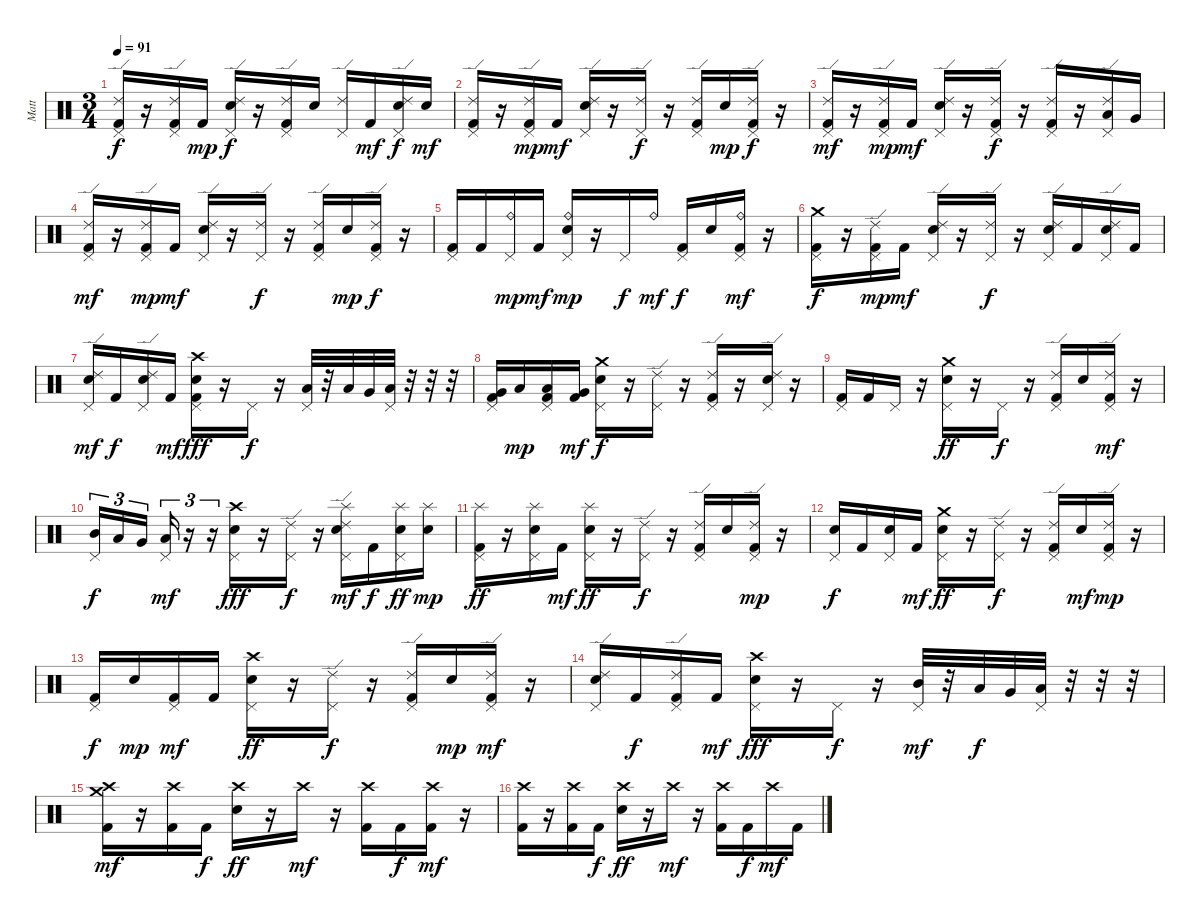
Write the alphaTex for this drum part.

\track ("Matt" "Matt") {instrument percussion}
\staff {score}
\articulation defaults
\ts (3 4)
\tempo 91
\clef neutral
\ks c
("Pedal Hi-Hat (hit)" "Ride (edge) 2" "Kick (hit) 2").16{dy f} r.16 ("Pedal Hi-Hat (hit)" "Ride (edge) 2" "Kick (hit) 2").16 "Kick (hit) 2".16{dy mp} ("Pedal Hi-Hat (hit)" "Ride (edge) 2" "Electric Snare (hit)").16{dy f} r.16 ("Pedal Hi-Hat (hit)" "Ride (edge) 2" "Kick (hit) 2").16 "Electric Snare (hit)".16 ("Pedal Hi-Hat (hit)" "Ride (edge) 2").16 "Kick (hit) 2".16{dy mf} ("Pedal Hi-Hat (hit)" "Ride (edge) 2" "Electric Snare (hit)").16{dy f} "Electric Snare (hit)".16{dy mf} |
("Pedal Hi-Hat (hit)" "Ride (edge) 2" "Kick (hit) 2").16 r.16 ("Pedal Hi-Hat (hit)" "Ride (edge) 2" "Kick (hit) 2").16{dy mp} "Kick (hit) 2".16{dy mf} ("Pedal Hi-Hat (hit)" "Ride (edge) 2" "Electric Snare (hit)").16 r.16 ("Pedal Hi-Hat (hit)" "Ride (edge) 2").16{dy f} r.16 ("Pedal Hi-Hat (hit)" "Ride (edge) 2" "Kick (hit) 2").16 "Electric Snare (hit)".16{dy mp} ("Pedal Hi-Hat (hit)" "Ride (edge) 2" "Kick (hit) 2").16{dy f} r.16 |
("Pedal Hi-Hat (hit)" "Ride (edge) 2" "Kick (hit) 2").16{dy mf} r.16 ("Pedal Hi-Hat (hit)" "Ride (edge) 2" "Kick (hit) 2").16{dy mp} "Kick (hit) 2".16{dy mf} ("Pedal Hi-Hat (hit)" "Ride (edge) 2" "Electric Snare (hit)").16 r.16 ("Pedal Hi-Hat (hit)" "Ride (edge) 2" "Kick (hit) 2").16{dy f} r.16 ("Pedal Hi-Hat (hit)" "Ride (edge) 2" "Kick (hit) 2").16 r.16 ("Pedal Hi-Hat (hit)" "Ride (edge) 2" "Low Tom (hit)").16 "Very Low Tom (hit)".16 |
("Pedal Hi-Hat (hit)" "Ride (edge) 2" "Kick (hit) 2").16{dy mf} r.16 ("Pedal Hi-Hat (hit)" "Ride (edge) 2" "Kick (hit) 2").16{dy mp} "Kick (hit) 2".16{dy mf} ("Pedal Hi-Hat (hit)" "Ride (edge) 2" "Electric Snare (hit)").16 r.16 ("Pedal Hi-Hat (hit)" "Ride (edge) 2").16{dy f} r.16 ("Pedal Hi-Hat (hit)" "Ride (edge) 2" "Kick (hit) 2").16 "Electric Snare (hit)".16{dy mp} ("Pedal Hi-Hat (hit)" "Ride (edge) 2" "Kick (hit) 2").16{dy f} r.16 |
("Pedal Hi-Hat (hit)" "Kick (hit) 2").16 "Kick (hit) 2".16 ("Ride (bell)" "Pedal Hi-Hat (hit)").16{dy mp} "Kick (hit) 2".16{dy mf} ("Ride (bell)" "Pedal Hi-Hat (hit)" "Electric Snare (hit)").16{dy mp} r.16 "Pedal Hi-Hat (hit)".16{dy f} "Ride (bell)".16{dy mf} ("Pedal Hi-Hat (hit)" "Kick (hit) 2").16{dy f} "Electric Snare (hit)".16 ("Ride (bell)" "Pedal Hi-Hat (hit)" "Kick (hit) 2").16{dy mf} r.16 |
("Crash medium (hit)" "Pedal Hi-Hat (hit)" "Kick (hit) 2").16{dy f} r.16 ("Pedal Hi-Hat (hit)" "Ride (edge) 2" "Kick (hit) 2").16{dy mp} "Kick (hit) 2".16{dy mf} ("Pedal Hi-Hat (hit)" "Ride (edge) 2" "Electric Snare (hit)").16 r.16 ("Pedal Hi-Hat (hit)" "Ride (edge) 2").16{dy f} r.16 ("Pedal Hi-Hat (hit)" "Ride (edge) 2" "Electric Snare (hit)").16 "Kick (hit) 2".16 ("Pedal Hi-Hat (hit)" "Ride (edge) 2" "Electric Snare (hit)").16 "Kick (hit) 2".16 |
("Pedal Hi-Hat (hit)" "Ride (edge) 2" "Electric Snare (hit)").16{dy mf} "Kick (hit) 2".16{dy f} ("Pedal Hi-Hat (hit)" "Ride (edge) 2" "Electric Snare (hit)").16 "Kick (hit) 2".16{dy mf} ("Crash high (hit)" "Pedal Hi-Hat (hit)" "Electric Snare (hit)" "Kick (hit) 2").16{dy fff} r.16 "Pedal Hi-Hat (hit)".16{dy f} r.16 ("Pedal Hi-Hat (hit)" "Low Tom (hit)").32 r.32 "Low Tom (hit)".32 "Very Low Tom (hit)".32 ("Pedal Hi-Hat (hit)" "Low Floor Tom (hit)").32 r.32 r.32 r.32 |
("Pedal Hi-Hat (hit)" "Very Low Tom (hit)" "Kick (hit) 2").16 "Low Tom (hit)".16{dy mp} ("Pedal Hi-Hat (hit)" "Low Floor Tom (hit)" "Kick (hit) 2").16 ("Very Low Tom (hit)" "Kick (hit) 2").16{dy mf} ("Crash medium (hit)" "Pedal Hi-Hat (hit)" "Electric Snare (hit)").16{dy f} r.16 ("Pedal Hi-Hat (hit)" "Ride (edge) 2").16 r.16 ("Pedal Hi-Hat (hit)" "Ride (edge) 2" "Kick (hit) 2").16 r.16 ("Pedal Hi-Hat (hit)" "Ride (edge) 2" "Electric Snare (hit)").16 r.16 |
("Pedal Hi-Hat (hit)" "Kick (hit) 2").16 "Kick (hit) 2".16 "Pedal Hi-Hat (hit)".16 r.16 ("Crash medium (hit)" "Pedal Hi-Hat (hit)" "Electric Snare (hit)").16{dy ff} r.16 "Pedal Hi-Hat (hit)".16{dy f} r.16 ("Pedal Hi-Hat (hit)" "Ride (edge) 2" "Kick (hit) 2").16 "Electric Snare (hit)".16 ("Pedal Hi-Hat (hit)" "Ride (edge) 2" "Kick (hit) 2").16{dy mf} r.16 |
("Pedal Hi-Hat (hit)" "Mid Tom (hit)").16{tu (3 2) dy f} "Low Tom (hit)".16{tu (3 2)} "Very Low Tom (hit)".16{tu (3 2)} ("Pedal Hi-Hat (hit)" "Low Floor Tom (hit)").16{tu (3 2) dy mf} r.16{tu (3 2)} r.16{tu (3 2)} ("Crash high (hit)" "Pedal Hi-Hat (hit)" "Electric Snare (hit)").16{dy fff} r.16 ("Pedal Hi-Hat (hit)" "Ride (edge) 2").16{dy f} r.16 ("Splash (hit)" "Pedal Hi-Hat (hit)" "Ride (edge) 2" "Electric Snare (hit)").16{dy mf} "Kick (hit) 2".16{dy f} ("Splash (hit)" "Pedal Hi-Hat (hit)" "Electric Snare (hit)").16{dy ff} ("Splash (hit)" "Electric Snare (hit)").16{dy mp} |
("Splash (hit)" "Pedal Hi-Hat (hit)" "Kick (hit) 2").16{dy ff} r.16 ("Splash (hit)" "Pedal Hi-Hat (hit)" "Electric Snare (hit)").16 "Kick (hit) 2".16{dy mf} ("Splash (hit)" "Pedal Hi-Hat (hit)" "Electric Snare (hit)").16{dy ff} r.16 ("Pedal Hi-Hat (hit)" "Ride (edge) 2").16{dy f} r.16 ("Pedal Hi-Hat (hit)" "Ride (edge) 2" "Kick (hit) 2").16 "Electric Snare (hit)".16 ("Pedal Hi-Hat (hit)" "Ride (edge) 2" "Kick (hit) 2").16{dy mp} r.16 |
("Pedal Hi-Hat (hit)" "Electric Snare (hit)").16{dy f} "Kick (hit) 2".16 ("Pedal Hi-Hat (hit)" "Electric Snare (hit)").16 "Kick (hit) 2".16{dy mf} ("Crash medium (hit)" "Pedal Hi-Hat (hit)" "Electric Snare (hit)").16{dy ff} r.16 ("Pedal Hi-Hat (hit)" "Ride (edge) 2").16{dy f} r.16 ("Pedal Hi-Hat (hit)" "Ride (edge) 2" "Kick (hit) 2").16 "Electric Snare (hit)".16{dy mf} ("Pedal Hi-Hat (hit)" "Ride (edge) 2" "Kick (hit) 2").16{dy mp} r.16 |
("Pedal Hi-Hat (hit)" "Kick (hit) 2").16{dy f} "Electric Snare (hit)".16{dy mp} ("Pedal Hi-Hat (hit)" "Kick (hit) 2").16{dy mf} "Kick (hit) 2".16 ("Crash high (hit)" "Pedal Hi-Hat (hit)" "Electric Snare (hit)").16{dy ff} r.16 ("Pedal Hi-Hat (hit)" "Ride (edge) 2").16{dy f} r.16 ("Pedal Hi-Hat (hit)" "Ride (edge) 2" "Kick (hit) 2").16 "Electric Snare (hit)".16{dy mp} ("Pedal Hi-Hat (hit)" "Ride (edge) 2" "Kick (hit) 2").16{dy mf} r.16 |
("Pedal Hi-Hat (hit)" "Ride (edge) 2" "Electric Snare (hit)").16 "Kick (hit) 2".16{dy f} ("Pedal Hi-Hat (hit)" "Ride (edge) 2" "Kick (hit) 2").16 "Kick (hit) 2".16{dy mf} ("Crash high (hit)" "Pedal Hi-Hat (hit)" "Electric Snare (hit)").16{dy fff} r.16 "Pedal Hi-Hat (hit)".16{dy f} r.16 ("Pedal Hi-Hat (hit)" "Mid Tom (hit)").32{dy mf} r.32 "Low Tom (hit)".32{dy f} "Very Low Tom (hit)".32 ("Pedal Hi-Hat (hit)" "Low Floor Tom (hit)").32 r.32 r.32 r.32 |
("Crash medium (hit)" "Crash high (hit)" "Kick (hit) 2").16{dy mf} r.16 ("Crash high (hit)" "Kick (hit) 2").16 "Kick (hit) 2".16{dy f} ("Crash high (hit)" "Electric Snare (hit)").16{dy ff} r.16 "Crash high (hit)".16{dy mf} r.16 ("Crash high (hit)" "Kick (hit) 2").16 "Kick (hit) 2".16{dy f} ("Crash high (hit)" "Kick (hit) 2").16{dy mf} r.16 |
("Crash high (hit)" "Kick (hit) 2").16 r.16 ("Crash high (hit)" "Kick (hit) 2").16 "Kick (hit) 2".16{dy f} ("Crash high (hit)" "Electric Snare (hit)").16{dy ff} r.16 "Crash high (hit)".16{dy mf} r.16 ("Crash high (hit)" "Kick (hit) 2").16 "Kick (hit) 2".16{dy f} "Crash high (hit)".16{dy mf} "Kick (hit) 2".16
